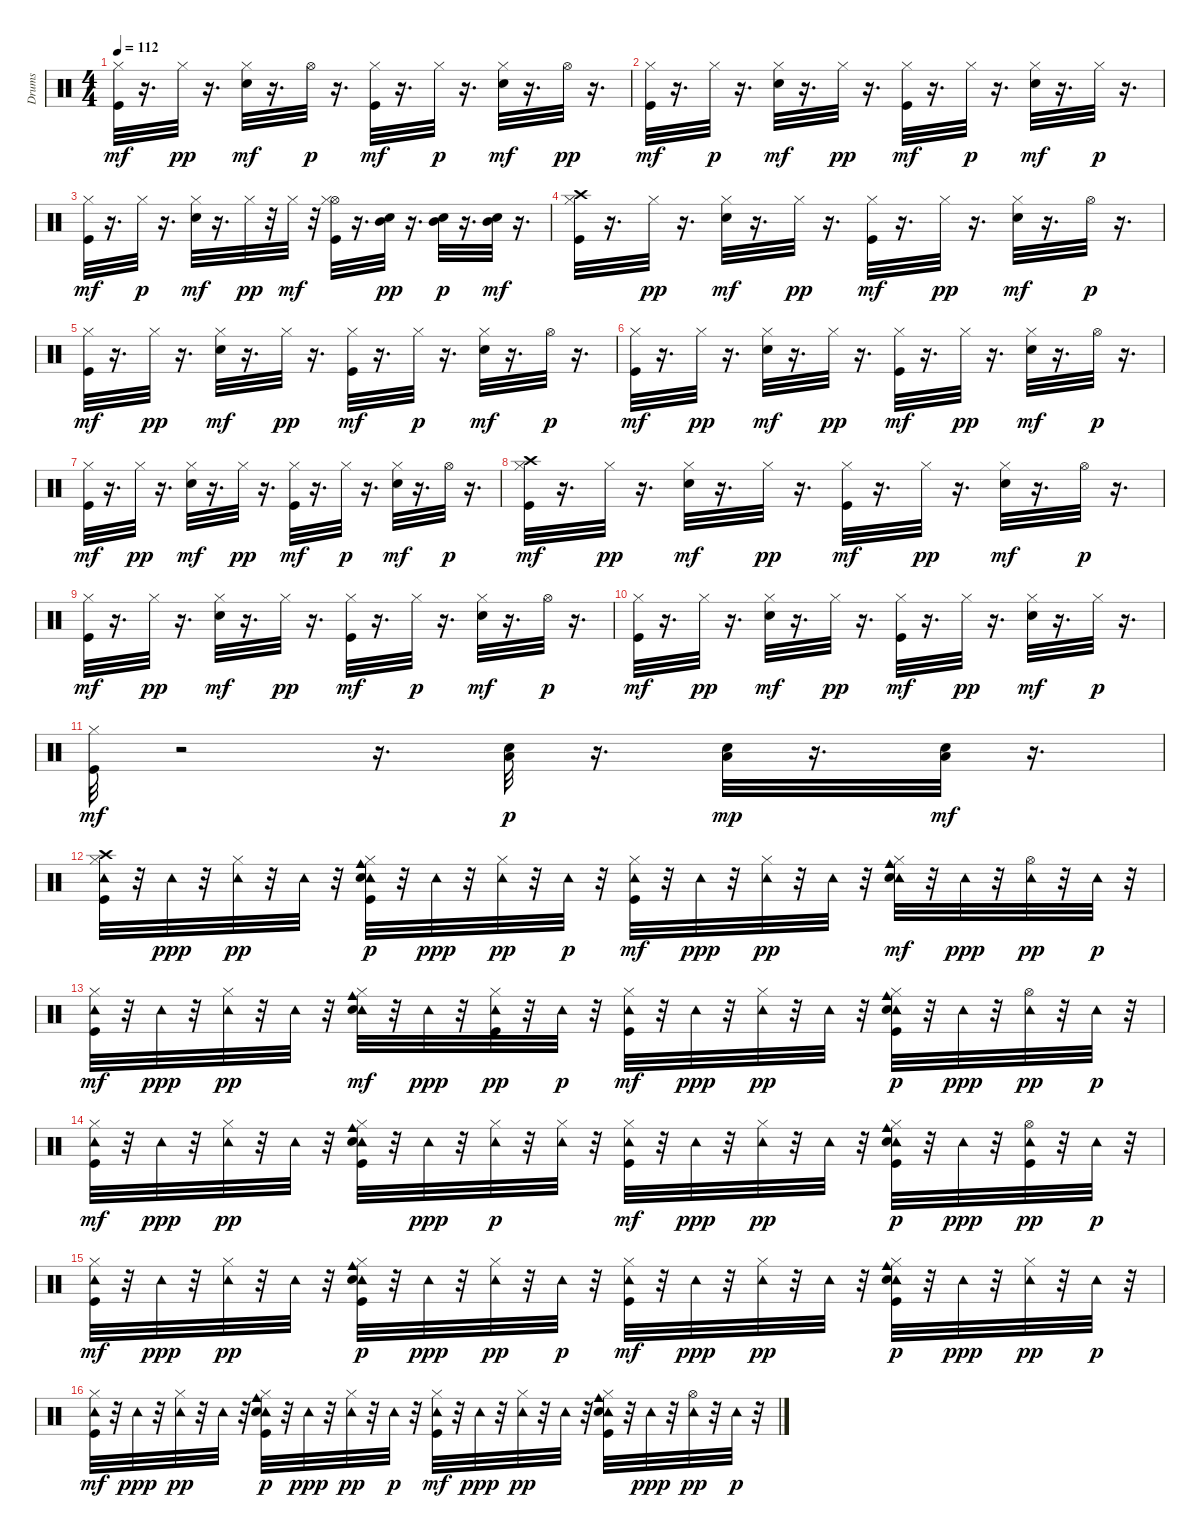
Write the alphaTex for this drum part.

\track ("Drums" "Drums") {instrument percussion}
\staff {score}
\articulation defaults
\ts (4 4)
\tempo 112
\clef neutral
\ks c
("Hi-Hat (closed)" "Kick (hit)").32{dy mf} r.16{d} "Hi-Hat (closed)".32{dy pp} r.16{d} ("Hi-Hat (closed)" "Electric Snare (hit)").32{dy mf} r.16{d} "Hi-Hat (open)".32{dy p} r.16{d} ("Hi-Hat (closed)" "Kick (hit)").32{dy mf} r.16{d} "Hi-Hat (closed)".32{dy p} r.16{d} ("Hi-Hat (closed)" "Electric Snare (hit)").32{dy mf} r.16{d} "Hi-Hat (open)".32{dy pp} r.16{d} |
("Hi-Hat (closed)" "Kick (hit)").32{dy mf} r.16{d} "Hi-Hat (closed)".32{dy p} r.16{d} ("Hi-Hat (closed)" "Electric Snare (hit)").32{dy mf} r.16{d} "Hi-Hat (closed)".32{dy pp} r.16{d} ("Hi-Hat (closed)" "Kick (hit)").32{dy mf} r.16{d} "Hi-Hat (closed)".32{dy p} r.16{d} ("Hi-Hat (closed)" "Electric Snare (hit)").32{dy mf} r.16{d} "Hi-Hat (closed)".32{dy p} r.16{d} |
("Hi-Hat (closed)" "Kick (hit)").32{dy mf} r.16{d} "Hi-Hat (closed)".32{dy p} r.16{d} ("Hi-Hat (closed)" "Electric Snare (hit)").32{dy mf} r.16{d} "Hi-Hat (closed)".32{dy pp} r.32 "Hi-Hat (closed)".32{dy mf} r.32 ("Hi-Hat (open)" "Hi-Hat (closed)" "Kick (hit)").32 r.16{d} ("Mid Tom (hit)" "Electric Snare (hit)").32{dy pp} r.16{d} ("Mid Tom (hit)" "Electric Snare (hit)").32{dy p} r.16{d} ("Mid Tom (hit)" "Electric Snare (hit)").32{dy mf} r.16{d} |
("Crash high (hit)" "Hi-Hat (closed)" "Kick (hit)").32 r.16{d} "Hi-Hat (closed)".32{dy pp} r.16{d} ("Hi-Hat (closed)" "Electric Snare (hit)").32{dy mf} r.16{d} "Hi-Hat (closed)".32{dy pp} r.16{d} ("Hi-Hat (closed)" "Kick (hit)").32{dy mf} r.16{d} "Hi-Hat (closed)".32{dy pp} r.16{d} ("Hi-Hat (closed)" "Electric Snare (hit)").32{dy mf} r.16{d} "Hi-Hat (open)".32{dy p} r.16{d} |
("Hi-Hat (closed)" "Kick (hit)").32{dy mf} r.16{d} "Hi-Hat (closed)".32{dy pp} r.16{d} ("Hi-Hat (closed)" "Electric Snare (hit)").32{dy mf} r.16{d} "Hi-Hat (closed)".32{dy pp} r.16{d} ("Hi-Hat (closed)" "Kick (hit)").32{dy mf} r.16{d} "Hi-Hat (closed)".32{dy p} r.16{d} ("Hi-Hat (closed)" "Electric Snare (hit)").32{dy mf} r.16{d} "Hi-Hat (open)".32{dy p} r.16{d} |
("Hi-Hat (closed)" "Kick (hit)").32{dy mf} r.16{d} "Hi-Hat (closed)".32{dy pp} r.16{d} ("Hi-Hat (closed)" "Electric Snare (hit)").32{dy mf} r.16{d} "Hi-Hat (closed)".32{dy pp} r.16{d} ("Hi-Hat (closed)" "Kick (hit)").32{dy mf} r.16{d} "Hi-Hat (closed)".32{dy pp} r.16{d} ("Hi-Hat (closed)" "Electric Snare (hit)").32{dy mf} r.16{d} "Hi-Hat (open)".32{dy p} r.16{d} |
("Hi-Hat (closed)" "Kick (hit)").32{dy mf} r.16{d} "Hi-Hat (closed)".32{dy pp} r.16{d} ("Hi-Hat (closed)" "Electric Snare (hit)").32{dy mf} r.16{d} "Hi-Hat (closed)".32{dy pp} r.16{d} ("Hi-Hat (closed)" "Kick (hit)").32{dy mf} r.16{d} "Hi-Hat (closed)".32{dy p} r.16{d} ("Hi-Hat (closed)" "Electric Snare (hit)").32{dy mf} r.16{d} "Hi-Hat (open)".32{dy p} r.16{d} |
("Crash high (hit)" "Hi-Hat (closed)" "Kick (hit)").32{dy mf} r.16{d} "Hi-Hat (closed)".32{dy pp} r.16{d} ("Hi-Hat (closed)" "Electric Snare (hit)").32{dy mf} r.16{d} "Hi-Hat (closed)".32{dy pp} r.16{d} ("Hi-Hat (closed)" "Kick (hit)").32{dy mf} r.16{d} "Hi-Hat (closed)".32{dy pp} r.16{d} ("Hi-Hat (closed)" "Electric Snare (hit)").32{dy mf} r.16{d} "Hi-Hat (open)".32{dy p} r.16{d} |
("Hi-Hat (closed)" "Kick (hit)").32{dy mf} r.16{d} "Hi-Hat (closed)".32{dy pp} r.16{d} ("Hi-Hat (closed)" "Electric Snare (hit)").32{dy mf} r.16{d} "Hi-Hat (closed)".32{dy pp} r.16{d} ("Hi-Hat (closed)" "Kick (hit)").32{dy mf} r.16{d} "Hi-Hat (closed)".32{dy p} r.16{d} ("Hi-Hat (closed)" "Electric Snare (hit)").32{dy mf} r.16{d} "Hi-Hat (open)".32{dy p} r.16{d} |
("Hi-Hat (closed)" "Kick (hit)").32{dy mf} r.16{d} "Hi-Hat (closed)".32{dy pp} r.16{d} ("Hi-Hat (closed)" "Electric Snare (hit)").32{dy mf} r.16{d} "Hi-Hat (closed)".32{dy pp} r.16{d} ("Hi-Hat (closed)" "Kick (hit)").32{dy mf} r.16{d} "Hi-Hat (closed)".32{dy pp} r.16{d} ("Hi-Hat (closed)" "Electric Snare (hit)").32{dy mf} r.16{d} "Hi-Hat (closed)".32{dy p} r.16{d} |
("Hi-Hat (closed)" "Kick (hit)").32{dy mf} r.2 r.16{d} ("Low Tom (hit)" "Electric Snare (hit)").32{dy p} r.16{d} ("Low Tom (hit)" "Electric Snare (hit)").32{dy mp} r.16{d} ("Low Tom (hit)" "Electric Snare (hit)").32{dy mf} r.16{d} |
("Tambourine (hit)" "Hi-Hat (closed)" "Crash high (hit)" "Kick (hit)").32 r.32 "Tambourine (hit)".32{dy ppp} r.32 ("Tambourine (hit)" "Hi-Hat (closed)").32{dy pp} r.32 "Tambourine (hit)".32 r.32 ("Cowbell medium (hit)" "Tambourine (hit)" "Hi-Hat (closed)" "Electric Snare (hit)" "Kick (hit)").32{dy p} r.32 "Tambourine (hit)".32{dy ppp} r.32 ("Tambourine (hit)" "Hi-Hat (closed)").32{dy pp} r.32 "Tambourine (hit)".32{dy p} r.32 ("Tambourine (hit)" "Hi-Hat (closed)" "Kick (hit)").32{dy mf} r.32 "Tambourine (hit)".32{dy ppp} r.32 ("Tambourine (hit)" "Hi-Hat (closed)").32{dy pp} r.32 "Tambourine (hit)".32 r.32 ("Cowbell medium (hit)" "Tambourine (hit)" "Hi-Hat (closed)" "Electric Snare (hit)").32{dy mf} r.32 "Tambourine (hit)".32{dy ppp} r.32 ("Hi-Hat (open)" "Tambourine (hit)").32{dy pp} r.32 "Tambourine (hit)".32{dy p} r.32 |
("Tambourine (hit)" "Hi-Hat (closed)" "Kick (hit)").32{dy mf} r.32 "Tambourine (hit)".32{dy ppp} r.32 ("Tambourine (hit)" "Hi-Hat (closed)").32{dy pp} r.32 "Tambourine (hit)".32 r.32 ("Cowbell medium (hit)" "Tambourine (hit)" "Hi-Hat (closed)" "Electric Snare (hit)").32{dy mf} r.32 "Tambourine (hit)".32{dy ppp} r.32 ("Kick (hit)" "Tambourine (hit)" "Hi-Hat (closed)").32{dy pp} r.32 "Tambourine (hit)".32{dy p} r.32 ("Tambourine (hit)" "Hi-Hat (closed)" "Kick (hit)").32{dy mf} r.32 "Tambourine (hit)".32{dy ppp} r.32 ("Tambourine (hit)" "Hi-Hat (closed)").32{dy pp} r.32 "Tambourine (hit)".32 r.32 ("Cowbell medium (hit)" "Tambourine (hit)" "Hi-Hat (closed)" "Electric Snare (hit)" "Kick (hit)").32{dy p} r.32 "Tambourine (hit)".32{dy ppp} r.32 ("Hi-Hat (open)" "Tambourine (hit)").32{dy pp} r.32 "Tambourine (hit)".32{dy p} r.32 |
("Tambourine (hit)" "Hi-Hat (closed)" "Kick (hit)").32{dy mf} r.32 "Tambourine (hit)".32{dy ppp} r.32 ("Tambourine (hit)" "Hi-Hat (closed)").32{dy pp} r.32 "Tambourine (hit)".32 r.32 ("Cowbell medium (hit)" "Tambourine (hit)" "Hi-Hat (closed)" "Electric Snare (hit)" "Kick (hit)").32 r.32 "Tambourine (hit)".32{dy ppp} r.32 ("Tambourine (hit)" "Hi-Hat (closed)").32{dy p} r.32 ("Hi-Hat (closed)" "Tambourine (hit)").32 r.32 ("Tambourine (hit)" "Hi-Hat (closed)" "Kick (hit)").32{dy mf} r.32 "Tambourine (hit)".32{dy ppp} r.32 ("Tambourine (hit)" "Hi-Hat (closed)").32{dy pp} r.32 "Tambourine (hit)".32 r.32 ("Cowbell medium (hit)" "Tambourine (hit)" "Hi-Hat (closed)" "Electric Snare (hit)" "Kick (hit)").32{dy p} r.32 "Tambourine (hit)".32{dy ppp} r.32 ("Kick (hit)" "Hi-Hat (open)" "Tambourine (hit)").32{dy pp} r.32 "Tambourine (hit)".32{dy p} r.32 |
("Tambourine (hit)" "Hi-Hat (closed)" "Kick (hit)").32{dy mf} r.32 "Tambourine (hit)".32{dy ppp} r.32 ("Tambourine (hit)" "Hi-Hat (closed)").32{dy pp} r.32 "Tambourine (hit)".32 r.32 ("Cowbell medium (hit)" "Tambourine (hit)" "Hi-Hat (closed)" "Electric Snare (hit)" "Kick (hit)").32{dy p} r.32 "Tambourine (hit)".32{dy ppp} r.32 ("Tambourine (hit)" "Hi-Hat (closed)").32{dy pp} r.32 "Tambourine (hit)".32{dy p} r.32 ("Tambourine (hit)" "Hi-Hat (closed)" "Kick (hit)").32{dy mf} r.32 "Tambourine (hit)".32{dy ppp} r.32 ("Hi-Hat (closed)" "Tambourine (hit)").32{dy pp} r.32 "Tambourine (hit)".32 r.32 ("Hi-Hat (closed)" "Cowbell medium (hit)" "Tambourine (hit)" "Electric Snare (hit)" "Kick (hit)").32{dy p} r.32 "Tambourine (hit)".32{dy ppp} r.32 ("Hi-Hat (closed)" "Tambourine (hit)").32{dy pp} r.32 "Tambourine (hit)".32{dy p} r.32 |
("Tambourine (hit)" "Hi-Hat (closed)" "Kick (hit)").32{dy mf} r.32 "Tambourine (hit)".32{dy ppp} r.32 ("Tambourine (hit)" "Hi-Hat (closed)").32{dy pp} r.32 "Tambourine (hit)".32 r.32 ("Cowbell medium (hit)" "Tambourine (hit)" "Hi-Hat (closed)" "Electric Snare (hit)" "Kick (hit)").32{dy p} r.32 "Tambourine (hit)".32{dy ppp} r.32 ("Tambourine (hit)" "Hi-Hat (closed)").32{dy pp} r.32 "Tambourine (hit)".32{dy p} r.32 ("Tambourine (hit)" "Hi-Hat (closed)" "Kick (hit)").32{dy mf} r.32 "Tambourine (hit)".32{dy ppp} r.32 ("Tambourine (hit)" "Hi-Hat (closed)").32{dy pp} r.32 "Tambourine (hit)".32 r.32 ("Cowbell medium (hit)" "Tambourine (hit)" "Hi-Hat (closed)" "Electric Snare (hit)" "Kick (hit)").32 r.32 "Tambourine (hit)".32{dy ppp} r.32 ("Hi-Hat (open)" "Tambourine (hit)").32{dy pp} r.32 "Tambourine (hit)".32{dy p} r.32
